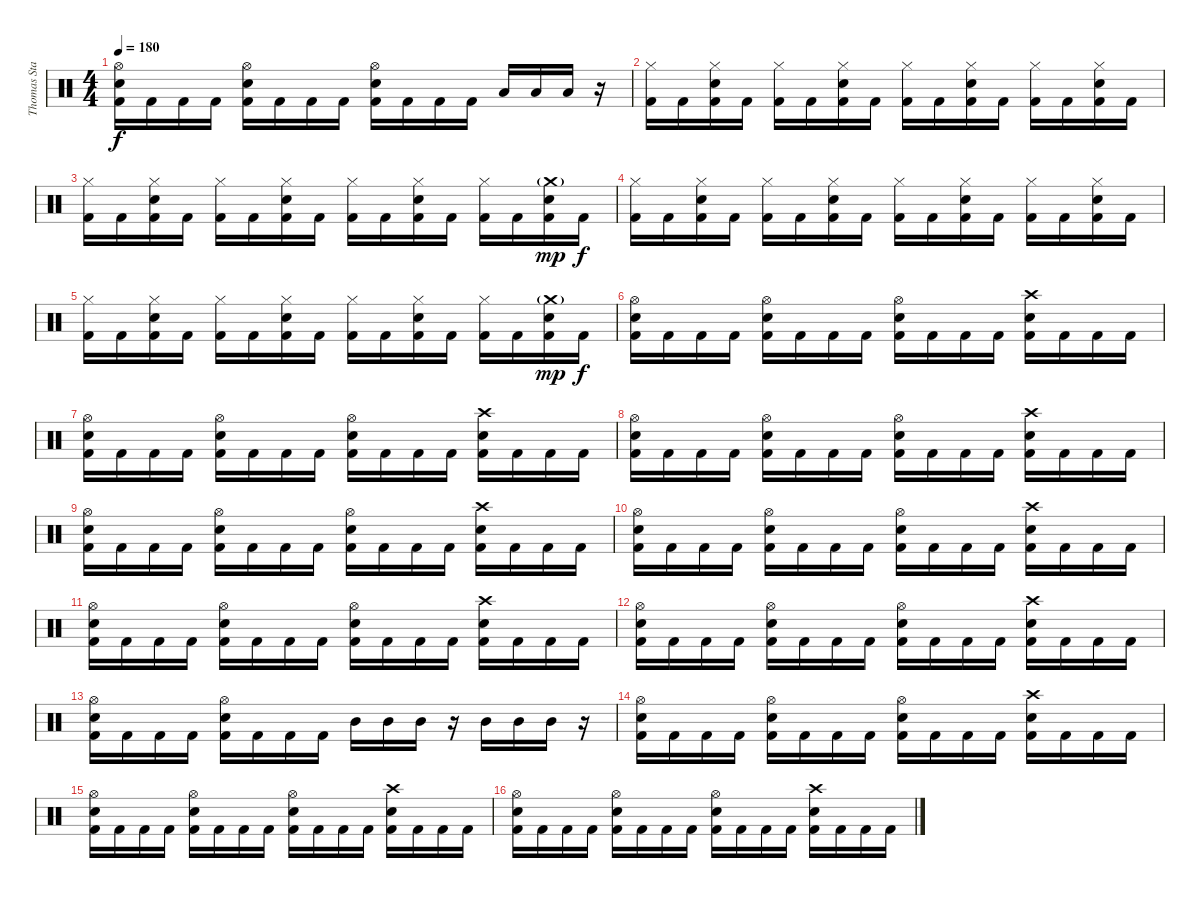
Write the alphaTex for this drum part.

\track ("Thomas Stauch" "Thomas Sta") {instrument percussion}
\staff {score}
\articulation defaults
\ts (4 4)
\tempo 180
\clef neutral
\ks c
("Hi-Hat (open)" "Electric Snare (hit)" "Kick (hit) 2").16{dy f} "Kick (hit) 2".16 "Kick (hit) 2".16 "Kick (hit) 2".16 ("Hi-Hat (open)" "Electric Snare (hit)" "Kick (hit) 2").16 "Kick (hit) 2".16 "Kick (hit) 2".16 "Kick (hit) 2".16 ("Hi-Hat (open)" "Electric Snare (hit)" "Kick (hit) 2").16 "Kick (hit) 2".16 "Kick (hit) 2".16 "Kick (hit) 2".16 "Low Tom (hit)".16 "Low Tom (hit)".16 "Low Tom (hit)".16 r.16 |
("Hi-Hat (closed)" "Kick (hit) 2").16 "Kick (hit) 2".16 ("Hi-Hat (closed)" "Electric Snare (hit)" "Kick (hit) 2").16 "Kick (hit) 2".16 ("Hi-Hat (closed)" "Kick (hit) 2").16 "Kick (hit) 2".16 ("Hi-Hat (closed)" "Electric Snare (hit)" "Kick (hit) 2").16 "Kick (hit) 2".16 ("Hi-Hat (closed)" "Kick (hit) 2").16 "Kick (hit) 2".16 ("Hi-Hat (closed)" "Electric Snare (hit)" "Kick (hit) 2").16 "Kick (hit) 2".16 ("Hi-Hat (closed)" "Kick (hit) 2").16 "Kick (hit) 2".16 ("Hi-Hat (closed)" "Electric Snare (hit)" "Kick (hit) 2").16 "Kick (hit) 2".16 |
("Hi-Hat (closed)" "Kick (hit) 2").16 "Kick (hit) 2".16 ("Hi-Hat (closed)" "Electric Snare (hit)" "Kick (hit) 2").16 "Kick (hit) 2".16 ("Hi-Hat (closed)" "Kick (hit) 2").16 "Kick (hit) 2".16 ("Hi-Hat (closed)" "Electric Snare (hit)" "Kick (hit) 2").16 "Kick (hit) 2".16 ("Hi-Hat (closed)" "Kick (hit) 2").16 "Kick (hit) 2".16 ("Hi-Hat (closed)" "Electric Snare (hit)" "Kick (hit) 2").16 "Kick (hit) 2".16 ("Hi-Hat (closed)" "Kick (hit) 2").16 "Kick (hit) 2".16 ("Crash medium (hit)"{g} "Electric Snare (hit)" "Kick (hit) 2").16{dy mp} "Kick (hit) 2".16{dy f} |
("Hi-Hat (closed)" "Kick (hit) 2").16 "Kick (hit) 2".16 ("Hi-Hat (closed)" "Electric Snare (hit)" "Kick (hit) 2").16 "Kick (hit) 2".16 ("Hi-Hat (closed)" "Kick (hit) 2").16 "Kick (hit) 2".16 ("Hi-Hat (closed)" "Electric Snare (hit)" "Kick (hit) 2").16 "Kick (hit) 2".16 ("Hi-Hat (closed)" "Kick (hit) 2").16 "Kick (hit) 2".16 ("Hi-Hat (closed)" "Electric Snare (hit)" "Kick (hit) 2").16 "Kick (hit) 2".16 ("Hi-Hat (closed)" "Kick (hit) 2").16 "Kick (hit) 2".16 ("Hi-Hat (closed)" "Electric Snare (hit)" "Kick (hit) 2").16 "Kick (hit) 2".16 |
("Hi-Hat (closed)" "Kick (hit) 2").16 "Kick (hit) 2".16 ("Hi-Hat (closed)" "Electric Snare (hit)" "Kick (hit) 2").16 "Kick (hit) 2".16 ("Hi-Hat (closed)" "Kick (hit) 2").16 "Kick (hit) 2".16 ("Hi-Hat (closed)" "Electric Snare (hit)" "Kick (hit) 2").16 "Kick (hit) 2".16 ("Hi-Hat (closed)" "Kick (hit) 2").16 "Kick (hit) 2".16 ("Hi-Hat (closed)" "Electric Snare (hit)" "Kick (hit) 2").16 "Kick (hit) 2".16 ("Hi-Hat (closed)" "Kick (hit) 2").16 "Kick (hit) 2".16 ("Crash medium (hit)"{g} "Electric Snare (hit)" "Kick (hit) 2").16{dy mp} "Kick (hit) 2".16{dy f} |
("Hi-Hat (open)" "Electric Snare (hit)" "Kick (hit) 2").16 "Kick (hit) 2".16 "Kick (hit) 2".16 "Kick (hit) 2".16 ("Hi-Hat (open)" "Electric Snare (hit)" "Kick (hit) 2").16 "Kick (hit) 2".16 "Kick (hit) 2".16 "Kick (hit) 2".16 ("Hi-Hat (open)" "Electric Snare (hit)" "Kick (hit) 2").16 "Kick (hit) 2".16 "Kick (hit) 2".16 "Kick (hit) 2".16 ("Crash high (hit)" "Electric Snare (hit)" "Kick (hit) 2").16 "Kick (hit) 2".16 "Kick (hit) 2".16 "Kick (hit) 2".16 |
("Hi-Hat (open)" "Electric Snare (hit)" "Kick (hit) 2").16 "Kick (hit) 2".16 "Kick (hit) 2".16 "Kick (hit) 2".16 ("Hi-Hat (open)" "Electric Snare (hit)" "Kick (hit) 2").16 "Kick (hit) 2".16 "Kick (hit) 2".16 "Kick (hit) 2".16 ("Hi-Hat (open)" "Electric Snare (hit)" "Kick (hit) 2").16 "Kick (hit) 2".16 "Kick (hit) 2".16 "Kick (hit) 2".16 ("Crash high (hit)" "Electric Snare (hit)" "Kick (hit) 2").16 "Kick (hit) 2".16 "Kick (hit) 2".16 "Kick (hit) 2".16 |
("Hi-Hat (open)" "Electric Snare (hit)" "Kick (hit) 2").16 "Kick (hit) 2".16 "Kick (hit) 2".16 "Kick (hit) 2".16 ("Hi-Hat (open)" "Electric Snare (hit)" "Kick (hit) 2").16 "Kick (hit) 2".16 "Kick (hit) 2".16 "Kick (hit) 2".16 ("Hi-Hat (open)" "Electric Snare (hit)" "Kick (hit) 2").16 "Kick (hit) 2".16 "Kick (hit) 2".16 "Kick (hit) 2".16 ("Crash high (hit)" "Electric Snare (hit)" "Kick (hit) 2").16 "Kick (hit) 2".16 "Kick (hit) 2".16 "Kick (hit) 2".16 |
("Hi-Hat (open)" "Electric Snare (hit)" "Kick (hit) 2").16 "Kick (hit) 2".16 "Kick (hit) 2".16 "Kick (hit) 2".16 ("Hi-Hat (open)" "Electric Snare (hit)" "Kick (hit) 2").16 "Kick (hit) 2".16 "Kick (hit) 2".16 "Kick (hit) 2".16 ("Hi-Hat (open)" "Electric Snare (hit)" "Kick (hit) 2").16 "Kick (hit) 2".16 "Kick (hit) 2".16 "Kick (hit) 2".16 ("Crash high (hit)" "Electric Snare (hit)" "Kick (hit) 2").16 "Kick (hit) 2".16 "Kick (hit) 2".16 "Kick (hit) 2".16 |
("Hi-Hat (open)" "Electric Snare (hit)" "Kick (hit) 2").16 "Kick (hit) 2".16 "Kick (hit) 2".16 "Kick (hit) 2".16 ("Hi-Hat (open)" "Electric Snare (hit)" "Kick (hit) 2").16 "Kick (hit) 2".16 "Kick (hit) 2".16 "Kick (hit) 2".16 ("Hi-Hat (open)" "Electric Snare (hit)" "Kick (hit) 2").16 "Kick (hit) 2".16 "Kick (hit) 2".16 "Kick (hit) 2".16 ("Crash high (hit)" "Electric Snare (hit)" "Kick (hit) 2").16 "Kick (hit) 2".16 "Kick (hit) 2".16 "Kick (hit) 2".16 |
("Hi-Hat (open)" "Electric Snare (hit)" "Kick (hit) 2").16 "Kick (hit) 2".16 "Kick (hit) 2".16 "Kick (hit) 2".16 ("Hi-Hat (open)" "Electric Snare (hit)" "Kick (hit) 2").16 "Kick (hit) 2".16 "Kick (hit) 2".16 "Kick (hit) 2".16 ("Hi-Hat (open)" "Electric Snare (hit)" "Kick (hit) 2").16 "Kick (hit) 2".16 "Kick (hit) 2".16 "Kick (hit) 2".16 ("Crash high (hit)" "Electric Snare (hit)" "Kick (hit) 2").16 "Kick (hit) 2".16 "Kick (hit) 2".16 "Kick (hit) 2".16 |
("Hi-Hat (open)" "Electric Snare (hit)" "Kick (hit) 2").16 "Kick (hit) 2".16 "Kick (hit) 2".16 "Kick (hit) 2".16 ("Hi-Hat (open)" "Electric Snare (hit)" "Kick (hit) 2").16 "Kick (hit) 2".16 "Kick (hit) 2".16 "Kick (hit) 2".16 ("Hi-Hat (open)" "Electric Snare (hit)" "Kick (hit) 2").16 "Kick (hit) 2".16 "Kick (hit) 2".16 "Kick (hit) 2".16 ("Crash high (hit)" "Electric Snare (hit)" "Kick (hit) 2").16 "Kick (hit) 2".16 "Kick (hit) 2".16 "Kick (hit) 2".16 |
("Hi-Hat (open)" "Electric Snare (hit)" "Kick (hit) 2").16 "Kick (hit) 2".16 "Kick (hit) 2".16 "Kick (hit) 2".16 ("Hi-Hat (open)" "Electric Snare (hit)" "Kick (hit) 2").16 "Kick (hit) 2".16 "Kick (hit) 2".16 "Kick (hit) 2".16 "Mid Tom (hit)".16 "Mid Tom (hit)".16 "Mid Tom (hit)".16 r.16 "Mid Tom (hit)".16 "Mid Tom (hit)".16 "Mid Tom (hit)".16 r.16 |
("Hi-Hat (open)" "Electric Snare (hit)" "Kick (hit) 2").16 "Kick (hit) 2".16 "Kick (hit) 2".16 "Kick (hit) 2".16 ("Hi-Hat (open)" "Electric Snare (hit)" "Kick (hit) 2").16 "Kick (hit) 2".16 "Kick (hit) 2".16 "Kick (hit) 2".16 ("Hi-Hat (open)" "Electric Snare (hit)" "Kick (hit) 2").16 "Kick (hit) 2".16 "Kick (hit) 2".16 "Kick (hit) 2".16 ("Crash high (hit)" "Electric Snare (hit)" "Kick (hit) 2").16 "Kick (hit) 2".16 "Kick (hit) 2".16 "Kick (hit) 2".16 |
("Hi-Hat (open)" "Electric Snare (hit)" "Kick (hit) 2").16 "Kick (hit) 2".16 "Kick (hit) 2".16 "Kick (hit) 2".16 ("Hi-Hat (open)" "Electric Snare (hit)" "Kick (hit) 2").16 "Kick (hit) 2".16 "Kick (hit) 2".16 "Kick (hit) 2".16 ("Hi-Hat (open)" "Electric Snare (hit)" "Kick (hit) 2").16 "Kick (hit) 2".16 "Kick (hit) 2".16 "Kick (hit) 2".16 ("Crash high (hit)" "Electric Snare (hit)" "Kick (hit) 2").16 "Kick (hit) 2".16 "Kick (hit) 2".16 "Kick (hit) 2".16 |
("Hi-Hat (open)" "Electric Snare (hit)" "Kick (hit) 2").16 "Kick (hit) 2".16 "Kick (hit) 2".16 "Kick (hit) 2".16 ("Hi-Hat (open)" "Electric Snare (hit)" "Kick (hit) 2").16 "Kick (hit) 2".16 "Kick (hit) 2".16 "Kick (hit) 2".16 ("Hi-Hat (open)" "Electric Snare (hit)" "Kick (hit) 2").16 "Kick (hit) 2".16 "Kick (hit) 2".16 "Kick (hit) 2".16 ("Crash high (hit)" "Electric Snare (hit)" "Kick (hit) 2").16 "Kick (hit) 2".16 "Kick (hit) 2".16 "Kick (hit) 2".16
